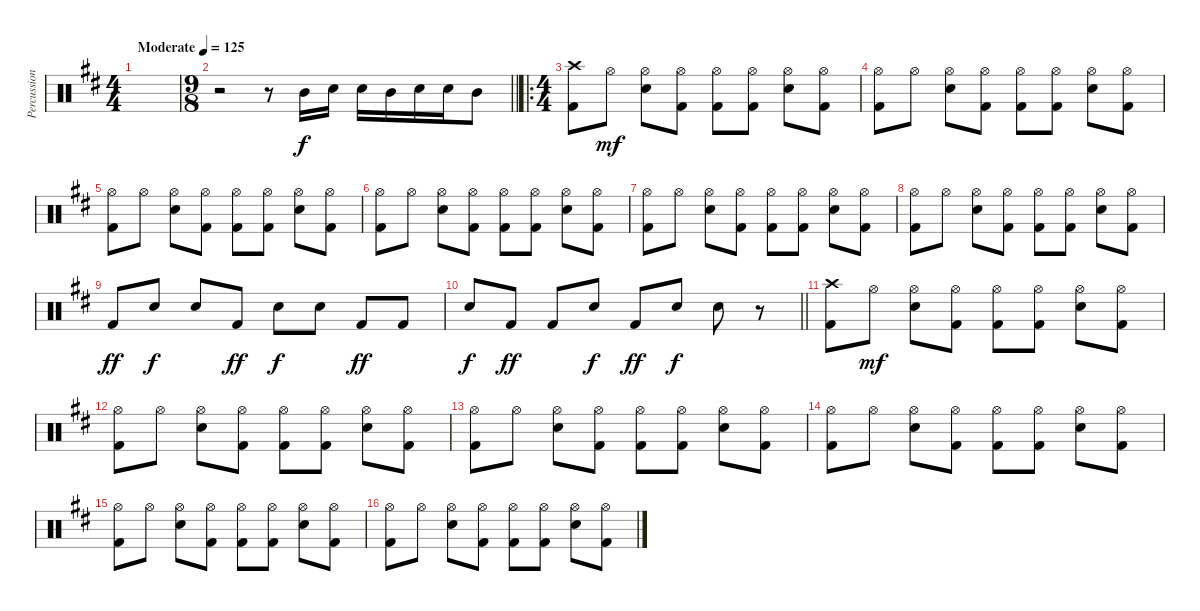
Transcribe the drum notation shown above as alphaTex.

\track ("Percussion" "Percussion") {instrument percussion}
\staff {score}
\articulation defaults
\ts (4 4)
\tempo (125 "Moderate")
\clef neutral
\ks d
|
\ts (9 8)
\barLineRight lightlight
r.2 r.8 "Mid Tom (hit)".16 "Snare (hit) 2".16 "Snare (hit) 2".16 "Mid Tom (hit)".16 "Snare (hit) 2".16 "Snare (hit) 2".16 "Mid Tom (hit)".8 |
\ro
\ts (4 4)
("Crash high (hit)" "Kick (hit) 2").8 "Hi-Hat (open)".8{dy mf} ("Hi-Hat (open)" "Snare (hit) 2").8 ("Hi-Hat (open)" "Kick (hit) 2").8 ("Hi-Hat (open)" "Kick (hit) 2").8 ("Hi-Hat (open)" "Kick (hit) 2").8 ("Hi-Hat (open)" "Snare (hit) 2").8 ("Hi-Hat (open)" "Kick (hit) 2").8 |
("Hi-Hat (open)" "Kick (hit) 2").8 "Hi-Hat (open)".8 ("Hi-Hat (open)" "Snare (hit) 2").8 ("Hi-Hat (open)" "Kick (hit) 2").8 ("Hi-Hat (open)" "Kick (hit) 2").8 ("Hi-Hat (open)" "Kick (hit) 2").8 ("Hi-Hat (open)" "Snare (hit) 2").8 ("Hi-Hat (open)" "Kick (hit) 2").8 |
("Hi-Hat (open)" "Kick (hit) 2").8 "Hi-Hat (open)".8 ("Hi-Hat (open)" "Snare (hit) 2").8 ("Hi-Hat (open)" "Kick (hit) 2").8 ("Hi-Hat (open)" "Kick (hit) 2").8 ("Hi-Hat (open)" "Kick (hit) 2").8 ("Hi-Hat (open)" "Snare (hit) 2").8 ("Hi-Hat (open)" "Kick (hit) 2").8 |
("Hi-Hat (open)" "Kick (hit) 2").8 "Hi-Hat (open)".8 ("Hi-Hat (open)" "Snare (hit) 2").8 ("Hi-Hat (open)" "Kick (hit) 2").8 ("Hi-Hat (open)" "Kick (hit) 2").8 ("Hi-Hat (open)" "Kick (hit) 2").8 ("Hi-Hat (open)" "Snare (hit) 2").8 ("Hi-Hat (open)" "Kick (hit) 2").8 |
("Hi-Hat (open)" "Kick (hit) 2").8 "Hi-Hat (open)".8 ("Hi-Hat (open)" "Snare (hit) 2").8 ("Hi-Hat (open)" "Kick (hit) 2").8 ("Hi-Hat (open)" "Kick (hit) 2").8 ("Hi-Hat (open)" "Kick (hit) 2").8 ("Hi-Hat (open)" "Snare (hit) 2").8 ("Hi-Hat (open)" "Kick (hit) 2").8 |
("Hi-Hat (open)" "Kick (hit) 2").8 "Hi-Hat (open)".8 ("Hi-Hat (open)" "Snare (hit) 2").8 ("Hi-Hat (open)" "Kick (hit) 2").8 ("Hi-Hat (open)" "Kick (hit) 2").8 ("Hi-Hat (open)" "Kick (hit) 2").8 ("Hi-Hat (open)" "Snare (hit) 2").8 ("Hi-Hat (open)" "Kick (hit) 2").8 |
"Kick (hit) 2".8{dy ff} "Snare (hit) 2".8{dy f} "Snare (hit) 2".8 "Kick (hit) 2".8{dy ff} "Snare (hit) 2".8{dy f} "Snare (hit) 2".8 "Kick (hit) 2".8{dy ff} "Kick (hit) 2".8 |
\barLineRight lightlight "Snare (hit) 2".8{dy f} "Kick (hit) 2".8{dy ff} "Kick (hit) 2".8 "Snare (hit) 2".8{dy f} "Kick (hit) 2".8{dy ff} "Snare (hit) 2".8{dy f} "Snare (hit) 2".8
r.8 |
("Crash high (hit)" "Kick (hit) 2").8 "Hi-Hat (open)".8{dy mf} ("Hi-Hat (open)" "Snare (hit) 2").8 ("Hi-Hat (open)" "Kick (hit) 2").8 ("Hi-Hat (open)" "Kick (hit) 2").8 ("Hi-Hat (open)" "Kick (hit) 2").8 ("Hi-Hat (open)" "Snare (hit) 2").8 ("Hi-Hat (open)" "Kick (hit) 2").8 |
("Hi-Hat (open)" "Kick (hit) 2").8 "Hi-Hat (open)".8 ("Hi-Hat (open)" "Snare (hit) 2").8 ("Hi-Hat (open)" "Kick (hit) 2").8 ("Hi-Hat (open)" "Kick (hit) 2").8 ("Hi-Hat (open)" "Kick (hit) 2").8 ("Hi-Hat (open)" "Snare (hit) 2").8 ("Hi-Hat (open)" "Kick (hit) 2").8 |
("Hi-Hat (open)" "Kick (hit) 2").8 "Hi-Hat (open)".8 ("Hi-Hat (open)" "Snare (hit) 2").8 ("Hi-Hat (open)" "Kick (hit) 2").8 ("Hi-Hat (open)" "Kick (hit) 2").8 ("Hi-Hat (open)" "Kick (hit) 2").8 ("Hi-Hat (open)" "Snare (hit) 2").8 ("Hi-Hat (open)" "Kick (hit) 2").8 |
("Hi-Hat (open)" "Kick (hit) 2").8 "Hi-Hat (open)".8 ("Hi-Hat (open)" "Snare (hit) 2").8 ("Hi-Hat (open)" "Kick (hit) 2").8 ("Hi-Hat (open)" "Kick (hit) 2").8 ("Hi-Hat (open)" "Kick (hit) 2").8 ("Hi-Hat (open)" "Snare (hit) 2").8 ("Hi-Hat (open)" "Kick (hit) 2").8 |
("Hi-Hat (open)" "Kick (hit) 2").8 "Hi-Hat (open)".8 ("Hi-Hat (open)" "Snare (hit) 2").8 ("Hi-Hat (open)" "Kick (hit) 2").8 ("Hi-Hat (open)" "Kick (hit) 2").8 ("Hi-Hat (open)" "Kick (hit) 2").8 ("Hi-Hat (open)" "Snare (hit) 2").8 ("Hi-Hat (open)" "Kick (hit) 2").8 |
("Hi-Hat (open)" "Kick (hit) 2").8 "Hi-Hat (open)".8 ("Hi-Hat (open)" "Snare (hit) 2").8 ("Hi-Hat (open)" "Kick (hit) 2").8 ("Hi-Hat (open)" "Kick (hit) 2").8 ("Hi-Hat (open)" "Kick (hit) 2").8 ("Hi-Hat (open)" "Snare (hit) 2").8 ("Hi-Hat (open)" "Kick (hit) 2").8
